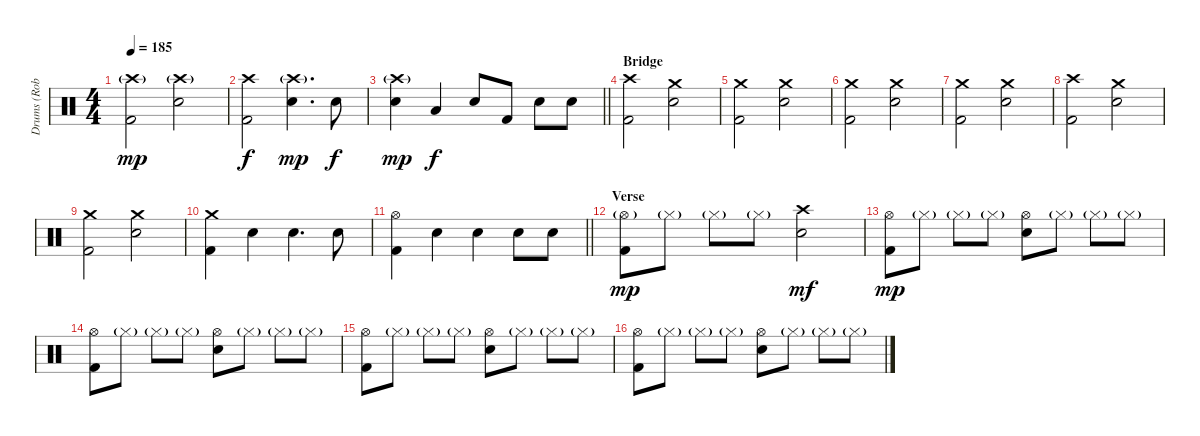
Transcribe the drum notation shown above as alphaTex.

\track ("Drums (Robert Ortiz)" "Drums (Rob") {instrument percussion}
\staff {score}
\articulation defaults
\ts (4 4)
\tempo 185
\clef neutral
\ks c
("Crash high (hit)"{g} "Kick (hit) 2").2{dy mp} ("Crash high (hit)"{g} "Electric Snare (hit)").2 |
("Crash high (hit)" "Kick (hit) 2").2{dy f} ("Crash high (hit)"{g} "Electric Snare (hit)").4{d dy mp} "Electric Snare (hit)".8{dy f} |
\barLineRight lightlight
("Crash high (hit)"{g} "Electric Snare (hit)").4{dy mp} "Low Tom (hit)".4{dy f} "Electric Snare (hit)".8 "Kick (hit) 2".8 "Electric Snare (hit)".8 "Electric Snare (hit)".8 |
\section ("" "Bridge")
("Crash high (hit)" "Kick (hit) 2").2 ("Crash medium (hit)" "Electric Snare (hit)").2 |
("Crash medium (hit)" "Kick (hit) 2").2 ("Crash medium (hit)" "Electric Snare (hit)").2 |
("Crash medium (hit)" "Kick (hit) 2").2 ("Crash medium (hit)" "Electric Snare (hit)").2 |
("Crash medium (hit)" "Kick (hit) 2").2 ("Crash medium (hit)" "Electric Snare (hit)").2 |
("Crash high (hit)" "Kick (hit) 2").2 ("Crash medium (hit)" "Electric Snare (hit)").2 |
("Crash medium (hit)" "Kick (hit) 2").2 ("Crash medium (hit)" "Electric Snare (hit)").2 |
("Crash medium (hit)" "Kick (hit) 2").4 "Electric Snare (hit)".4 "Electric Snare (hit)".4{d} "Electric Snare (hit)".8 |
\barLineRight lightlight
("Hi-Hat (open)" "Kick (hit) 2").4 "Electric Snare (hit)".4 "Electric Snare (hit)".4 "Electric Snare (hit)".8 "Electric Snare (hit)".8 |
\section ("" "Verse")
("Hi-Hat (open)"{g} "Kick (hit) 2").8{dy mp} "Hi-Hat (closed)"{g}.8 "Hi-Hat (closed)"{g}.8 "Hi-Hat (closed)"{g}.8 ("Crash high (hit)" "Electric Snare (hit)").2{dy mf} |
("Hi-Hat (open)" "Kick (hit) 2").8{dy mp} "Hi-Hat (closed)"{g}.8 "Hi-Hat (closed)"{g}.8 "Hi-Hat (closed)"{g}.8 ("Hi-Hat (open)" "Electric Snare (hit)").8 "Hi-Hat (closed)"{g}.8 "Hi-Hat (closed)"{g}.8 "Hi-Hat (closed)"{g}.8 |
("Hi-Hat (open)" "Kick (hit) 2").8 "Hi-Hat (closed)"{g}.8 "Hi-Hat (closed)"{g}.8 "Hi-Hat (closed)"{g}.8 ("Hi-Hat (open)" "Electric Snare (hit)").8 "Hi-Hat (closed)"{g}.8 "Hi-Hat (closed)"{g}.8 "Hi-Hat (closed)"{g}.8 |
("Hi-Hat (open)" "Kick (hit) 2").8 "Hi-Hat (closed)"{g}.8 "Hi-Hat (closed)"{g}.8 "Hi-Hat (closed)"{g}.8 ("Hi-Hat (open)" "Electric Snare (hit)").8 "Hi-Hat (closed)"{g}.8 "Hi-Hat (closed)"{g}.8 "Hi-Hat (closed)"{g}.8 |
("Hi-Hat (open)" "Kick (hit) 2").8 "Hi-Hat (closed)"{g}.8 "Hi-Hat (closed)"{g}.8 "Hi-Hat (closed)"{g}.8 ("Hi-Hat (open)" "Electric Snare (hit)").8 "Hi-Hat (closed)"{g}.8 "Hi-Hat (closed)"{g}.8 "Hi-Hat (closed)"{g}.8
